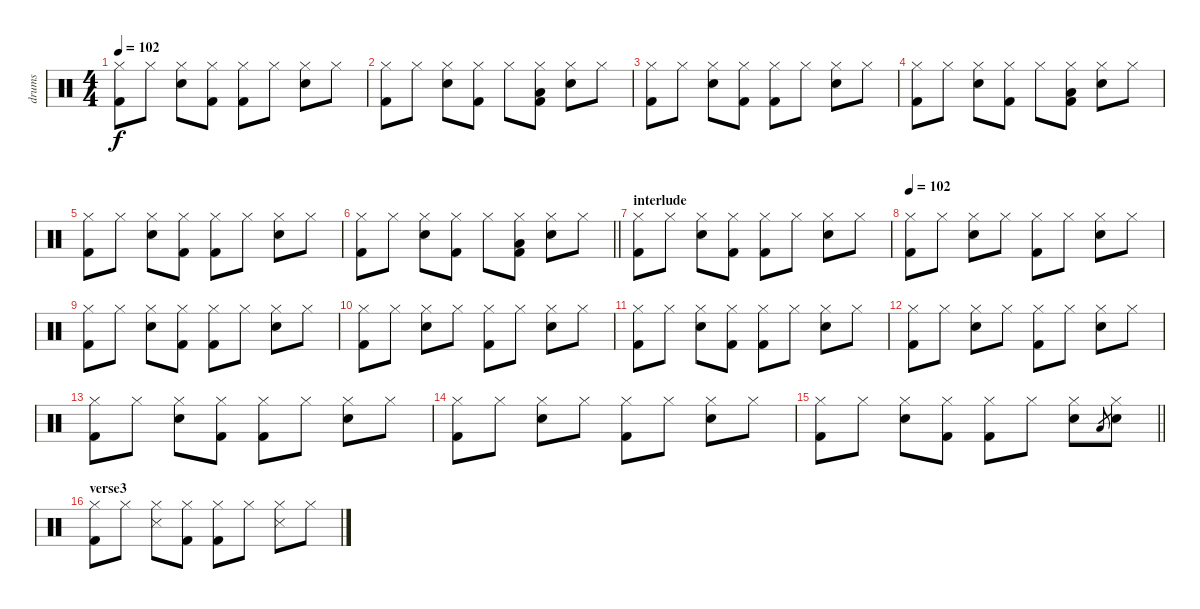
\track ("drums" "drums") {instrument percussion}
\staff {score}
\articulation defaults
\ts (4 4)
\tempo 102
\clef neutral
\ks c
("Hi-Hat (closed)" "Kick (hit) 2").8{dy f} "Hi-Hat (closed)".8 ("Hi-Hat (closed)" "Snare (hit) 2").8 ("Hi-Hat (closed)" "Kick (hit) 2").8 ("Hi-Hat (closed)" "Kick (hit) 2").8 "Hi-Hat (closed)".8 ("Hi-Hat (closed)" "Snare (hit) 2").8 "Hi-Hat (closed)".8 |
("Hi-Hat (closed)" "Kick (hit) 2").8 "Hi-Hat (closed)".8 ("Hi-Hat (closed)" "Snare (hit) 2").8 ("Hi-Hat (closed)" "Kick (hit) 2").8 "Hi-Hat (closed)".8 ("Hi-Hat (closed)" "Low Floor Tom (hit)" "Kick (hit) 2").8 ("Hi-Hat (closed)" "Snare (hit) 2").8 "Hi-Hat (closed)".8 |
("Hi-Hat (closed)" "Kick (hit) 2").8 "Hi-Hat (closed)".8 ("Hi-Hat (closed)" "Snare (hit) 2").8 ("Hi-Hat (closed)" "Kick (hit) 2").8 ("Hi-Hat (closed)" "Kick (hit) 2").8 "Hi-Hat (closed)".8 ("Hi-Hat (closed)" "Snare (hit) 2").8 "Hi-Hat (closed)".8 |
("Hi-Hat (closed)" "Kick (hit) 2").8 "Hi-Hat (closed)".8 ("Hi-Hat (closed)" "Snare (hit) 2").8 ("Hi-Hat (closed)" "Kick (hit) 2").8 "Hi-Hat (closed)".8 ("Hi-Hat (closed)" "Low Floor Tom (hit)" "Kick (hit) 2").8 ("Hi-Hat (closed)" "Snare (hit) 2").8 "Hi-Hat (closed)".8 |
("Hi-Hat (closed)" "Kick (hit) 2").8 "Hi-Hat (closed)".8 ("Hi-Hat (closed)" "Snare (hit) 2").8 ("Hi-Hat (closed)" "Kick (hit) 2").8 ("Hi-Hat (closed)" "Kick (hit) 2").8 "Hi-Hat (closed)".8 ("Hi-Hat (closed)" "Snare (hit) 2").8 "Hi-Hat (closed)".8 |
\barLineRight lightlight
("Hi-Hat (closed)" "Kick (hit) 2").8 "Hi-Hat (closed)".8 ("Hi-Hat (closed)" "Snare (hit) 2").8 ("Hi-Hat (closed)" "Kick (hit) 2").8 "Hi-Hat (closed)".8 ("Hi-Hat (closed)" "Low Floor Tom (hit)" "Kick (hit) 2").8 ("Hi-Hat (closed)" "Snare (hit) 2").8 "Hi-Hat (closed)".8 |
\section ("" "interlude")
("Hi-Hat (closed)" "Kick (hit) 2").8 "Hi-Hat (closed)".8 ("Hi-Hat (closed)" "Snare (hit) 2").8 ("Hi-Hat (closed)" "Kick (hit) 2").8 ("Hi-Hat (closed)" "Kick (hit) 2").8 "Hi-Hat (closed)".8 ("Hi-Hat (closed)" "Snare (hit) 2").8 "Hi-Hat (closed)".8 |
\tempo 102
("Hi-Hat (closed)" "Kick (hit) 2").8 "Hi-Hat (closed)".8 ("Hi-Hat (closed)" "Snare (hit) 2").8 "Hi-Hat (closed)".8 ("Hi-Hat (closed)" "Kick (hit) 2").8 "Hi-Hat (closed)".8 ("Hi-Hat (closed)" "Snare (hit) 2").8 "Hi-Hat (closed)".8 |
("Hi-Hat (closed)" "Kick (hit) 2").8 "Hi-Hat (closed)".8 ("Hi-Hat (closed)" "Snare (hit) 2").8 ("Hi-Hat (closed)" "Kick (hit) 2").8 ("Hi-Hat (closed)" "Kick (hit) 2").8 "Hi-Hat (closed)".8 ("Hi-Hat (closed)" "Snare (hit) 2").8 "Hi-Hat (closed)".8 |
("Hi-Hat (closed)" "Kick (hit) 2").8 "Hi-Hat (closed)".8 ("Hi-Hat (closed)" "Snare (hit) 2").8 "Hi-Hat (closed)".8 ("Hi-Hat (closed)" "Kick (hit) 2").8 "Hi-Hat (closed)".8 ("Hi-Hat (closed)" "Snare (hit) 2").8 "Hi-Hat (closed)".8 |
("Hi-Hat (closed)" "Kick (hit) 2").8 "Hi-Hat (closed)".8 ("Hi-Hat (closed)" "Snare (hit) 2").8 ("Hi-Hat (closed)" "Kick (hit) 2").8 ("Hi-Hat (closed)" "Kick (hit) 2").8 "Hi-Hat (closed)".8 ("Hi-Hat (closed)" "Snare (hit) 2").8 "Hi-Hat (closed)".8 |
("Hi-Hat (closed)" "Kick (hit) 2").8 "Hi-Hat (closed)".8 ("Hi-Hat (closed)" "Snare (hit) 2").8 "Hi-Hat (closed)".8 ("Hi-Hat (closed)" "Kick (hit) 2").8 "Hi-Hat (closed)".8 ("Hi-Hat (closed)" "Snare (hit) 2").8 "Hi-Hat (closed)".8 |
("Hi-Hat (closed)" "Kick (hit) 2").8 "Hi-Hat (closed)".8 ("Hi-Hat (closed)" "Snare (hit) 2").8 ("Hi-Hat (closed)" "Kick (hit) 2").8 ("Hi-Hat (closed)" "Kick (hit) 2").8 "Hi-Hat (closed)".8 ("Hi-Hat (closed)" "Snare (hit) 2").8 "Hi-Hat (closed)".8 |
("Hi-Hat (closed)" "Kick (hit) 2").8 "Hi-Hat (closed)".8 ("Hi-Hat (closed)" "Snare (hit) 2").8 "Hi-Hat (closed)".8 ("Hi-Hat (closed)" "Kick (hit) 2").8 "Hi-Hat (closed)".8 ("Hi-Hat (closed)" "Snare (hit) 2").8 "Hi-Hat (closed)".8 |
\barLineRight lightlight
("Hi-Hat (closed)" "Kick (hit) 2").8 "Hi-Hat (closed)".8 ("Hi-Hat (closed)" "Snare (hit) 2").8 ("Hi-Hat (closed)" "Kick (hit) 2").8 ("Hi-Hat (closed)" "Kick (hit) 2").8 "Hi-Hat (closed)".8 ("Hi-Hat (closed)" "Snare (hit) 2").8 "Low Floor Tom (hit)".8{gr} ("Hi-Hat (closed)" "Snare (hit) 2").8 |
\section ("" "verse3")
("Hi-Hat (closed)" "Kick (hit) 2").8 "Hi-Hat (closed)".8 ("Hi-Hat (closed)" "Snare (side stick) 3").8 ("Hi-Hat (closed)" "Kick (hit) 2").8 ("Hi-Hat (closed)" "Kick (hit) 2").8 "Hi-Hat (closed)".8 ("Hi-Hat (closed)" "Snare (side stick) 3").8 "Hi-Hat (closed)".8
